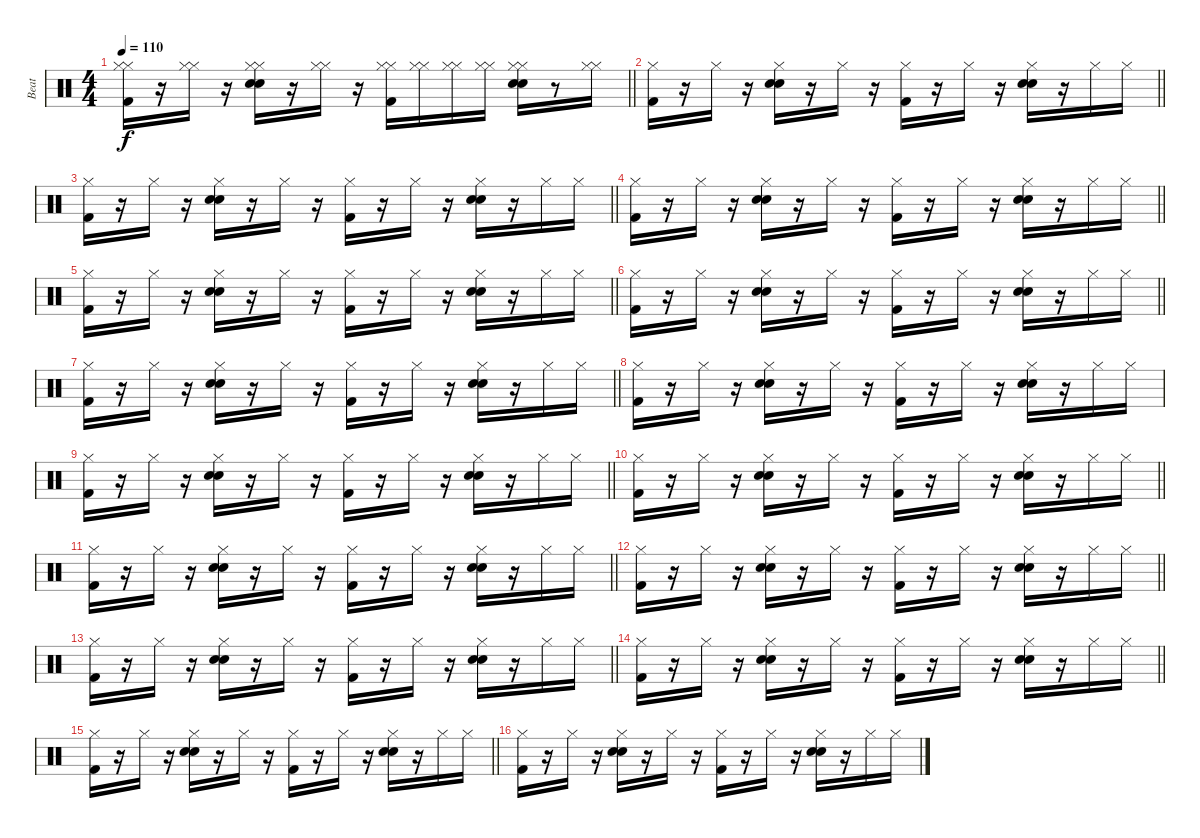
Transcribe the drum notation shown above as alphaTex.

\track ("Beat" "Beat") {instrument percussion}
\staff {score}
\articulation defaults
\ts (4 4)
\tempo 110
\clef neutral
\barLineRight lightlight
\ks c
("Hi-Hat (closed)" "Hi-Hat (closed)" "Kick (hit) 2").16{dy f} r.16 ("Hi-Hat (closed)" "Hi-Hat (closed)").16 r.16 ("Hi-Hat (closed)" "Hi-Hat (closed)" "Electric Snare (hit)" "Hand Clap (hit)").16 r.16 ("Hi-Hat (closed)" "Hi-Hat (closed)").16 r.16 ("Hi-Hat (closed)" "Hi-Hat (closed)" "Kick (hit) 2").16 ("Hi-Hat (closed)" "Hi-Hat (closed)").16 ("Hi-Hat (closed)" "Hi-Hat (closed)").16 ("Hi-Hat (closed)" "Hi-Hat (closed)").16 ("Hi-Hat (closed)" "Hi-Hat (closed)" "Electric Snare (hit)" "Hand Clap (hit)").16 r.8 ("Hi-Hat (closed)" "Hi-Hat (closed)").16 |
\barLineRight lightlight
("Hi-Hat (closed)" "Kick (hit) 2").16 r.16 "Hi-Hat (closed)".16 r.16 ("Hi-Hat (closed)" "Electric Snare (hit)" "Hand Clap (hit)").16 r.16 "Hi-Hat (closed)".16 r.16 ("Hi-Hat (closed)" "Kick (hit) 2").16 r.16 "Hi-Hat (closed)".16 r.16 ("Hi-Hat (closed)" "Electric Snare (hit)" "Hand Clap (hit)").16 r.16 "Hi-Hat (closed)".16 "Hi-Hat (closed)".16 |
\barLineRight lightlight
("Hi-Hat (closed)" "Kick (hit) 2").16 r.16 "Hi-Hat (closed)".16 r.16 ("Hi-Hat (closed)" "Electric Snare (hit)" "Hand Clap (hit)").16 r.16 "Hi-Hat (closed)".16 r.16 ("Hi-Hat (closed)" "Kick (hit) 2").16 r.16 "Hi-Hat (closed)".16 r.16 ("Hi-Hat (closed)" "Electric Snare (hit)" "Hand Clap (hit)").16 r.16 "Hi-Hat (closed)".16 "Hi-Hat (closed)".16 |
\barLineRight lightlight
("Hi-Hat (closed)" "Kick (hit) 2").16 r.16 "Hi-Hat (closed)".16 r.16 ("Hi-Hat (closed)" "Electric Snare (hit)" "Hand Clap (hit)").16 r.16 "Hi-Hat (closed)".16 r.16 ("Hi-Hat (closed)" "Kick (hit) 2").16 r.16 "Hi-Hat (closed)".16 r.16 ("Hi-Hat (closed)" "Electric Snare (hit)" "Hand Clap (hit)").16 r.16 "Hi-Hat (closed)".16 "Hi-Hat (closed)".16 |
\barLineRight lightlight
("Hi-Hat (closed)" "Kick (hit) 2").16 r.16 "Hi-Hat (closed)".16 r.16 ("Hi-Hat (closed)" "Electric Snare (hit)" "Hand Clap (hit)").16 r.16 "Hi-Hat (closed)".16 r.16 ("Hi-Hat (closed)" "Kick (hit) 2").16 r.16 "Hi-Hat (closed)".16 r.16 ("Hi-Hat (closed)" "Electric Snare (hit)" "Hand Clap (hit)").16 r.16 "Hi-Hat (closed)".16 "Hi-Hat (closed)".16 |
\barLineRight lightlight
("Hi-Hat (closed)" "Kick (hit) 2").16 r.16 "Hi-Hat (closed)".16 r.16 ("Hi-Hat (closed)" "Electric Snare (hit)" "Hand Clap (hit)").16 r.16 "Hi-Hat (closed)".16 r.16 ("Hi-Hat (closed)" "Kick (hit) 2").16 r.16 "Hi-Hat (closed)".16 r.16 ("Hi-Hat (closed)" "Electric Snare (hit)" "Hand Clap (hit)").16 r.16 "Hi-Hat (closed)".16 "Hi-Hat (closed)".16 |
\barLineRight lightlight
("Hi-Hat (closed)" "Kick (hit) 2").16 r.16 "Hi-Hat (closed)".16 r.16 ("Hi-Hat (closed)" "Electric Snare (hit)" "Hand Clap (hit)").16 r.16 "Hi-Hat (closed)".16 r.16 ("Hi-Hat (closed)" "Kick (hit) 2").16 r.16 "Hi-Hat (closed)".16 r.16 ("Hi-Hat (closed)" "Electric Snare (hit)" "Hand Clap (hit)").16 r.16 "Hi-Hat (closed)".16 "Hi-Hat (closed)".16 |
("Hi-Hat (closed)" "Kick (hit) 2").16 r.16 "Hi-Hat (closed)".16 r.16 ("Hi-Hat (closed)" "Electric Snare (hit)" "Hand Clap (hit)").16 r.16 "Hi-Hat (closed)".16 r.16 ("Hi-Hat (closed)" "Kick (hit) 2").16 r.16 "Hi-Hat (closed)".16 r.16 ("Hi-Hat (closed)" "Electric Snare (hit)" "Hand Clap (hit)").16 r.16 "Hi-Hat (closed)".16 "Hi-Hat (closed)".16 |
\barLineRight lightlight
("Hi-Hat (closed)" "Kick (hit) 2").16 r.16 "Hi-Hat (closed)".16 r.16 ("Hi-Hat (closed)" "Electric Snare (hit)" "Hand Clap (hit)").16 r.16 "Hi-Hat (closed)".16 r.16 ("Hi-Hat (closed)" "Kick (hit) 2").16 r.16 "Hi-Hat (closed)".16 r.16 ("Hi-Hat (closed)" "Electric Snare (hit)" "Hand Clap (hit)").16 r.16 "Hi-Hat (closed)".16 "Hi-Hat (closed)".16 |
\barLineRight lightlight
("Hi-Hat (closed)" "Kick (hit) 2").16 r.16 "Hi-Hat (closed)".16 r.16 ("Hi-Hat (closed)" "Electric Snare (hit)" "Hand Clap (hit)").16 r.16 "Hi-Hat (closed)".16 r.16 ("Hi-Hat (closed)" "Kick (hit) 2").16 r.16 "Hi-Hat (closed)".16 r.16 ("Hi-Hat (closed)" "Electric Snare (hit)" "Hand Clap (hit)").16 r.16 "Hi-Hat (closed)".16 "Hi-Hat (closed)".16 |
\barLineRight lightlight
("Hi-Hat (closed)" "Kick (hit) 2").16 r.16 "Hi-Hat (closed)".16 r.16 ("Hi-Hat (closed)" "Electric Snare (hit)" "Hand Clap (hit)").16 r.16 "Hi-Hat (closed)".16 r.16 ("Hi-Hat (closed)" "Kick (hit) 2").16 r.16 "Hi-Hat (closed)".16 r.16 ("Hi-Hat (closed)" "Electric Snare (hit)" "Hand Clap (hit)").16 r.16 "Hi-Hat (closed)".16 "Hi-Hat (closed)".16 |
\barLineRight lightlight
("Hi-Hat (closed)" "Kick (hit) 2").16 r.16 "Hi-Hat (closed)".16 r.16 ("Hi-Hat (closed)" "Electric Snare (hit)" "Hand Clap (hit)").16 r.16 "Hi-Hat (closed)".16 r.16 ("Hi-Hat (closed)" "Kick (hit) 2").16 r.16 "Hi-Hat (closed)".16 r.16 ("Hi-Hat (closed)" "Electric Snare (hit)" "Hand Clap (hit)").16 r.16 "Hi-Hat (closed)".16 "Hi-Hat (closed)".16 |
\barLineRight lightlight
("Hi-Hat (closed)" "Kick (hit) 2").16 r.16 "Hi-Hat (closed)".16 r.16 ("Hi-Hat (closed)" "Electric Snare (hit)" "Hand Clap (hit)").16 r.16 "Hi-Hat (closed)".16 r.16 ("Hi-Hat (closed)" "Kick (hit) 2").16 r.16 "Hi-Hat (closed)".16 r.16 ("Hi-Hat (closed)" "Electric Snare (hit)" "Hand Clap (hit)").16 r.16 "Hi-Hat (closed)".16 "Hi-Hat (closed)".16 |
\barLineRight lightlight
("Hi-Hat (closed)" "Kick (hit) 2").16 r.16 "Hi-Hat (closed)".16 r.16 ("Hi-Hat (closed)" "Electric Snare (hit)" "Hand Clap (hit)").16 r.16 "Hi-Hat (closed)".16 r.16 ("Hi-Hat (closed)" "Kick (hit) 2").16 r.16 "Hi-Hat (closed)".16 r.16 ("Hi-Hat (closed)" "Electric Snare (hit)" "Hand Clap (hit)").16 r.16 "Hi-Hat (closed)".16 "Hi-Hat (closed)".16 |
\barLineRight lightlight
("Hi-Hat (closed)" "Kick (hit) 2").16 r.16 "Hi-Hat (closed)".16 r.16 ("Hi-Hat (closed)" "Electric Snare (hit)" "Hand Clap (hit)").16 r.16 "Hi-Hat (closed)".16 r.16 ("Hi-Hat (closed)" "Kick (hit) 2").16 r.16 "Hi-Hat (closed)".16 r.16 ("Hi-Hat (closed)" "Electric Snare (hit)" "Hand Clap (hit)").16 r.16 "Hi-Hat (closed)".16 "Hi-Hat (closed)".16 |
("Hi-Hat (closed)" "Kick (hit) 2").16 r.16 "Hi-Hat (closed)".16 r.16 ("Hi-Hat (closed)" "Electric Snare (hit)" "Hand Clap (hit)").16 r.16 "Hi-Hat (closed)".16 r.16 ("Hi-Hat (closed)" "Kick (hit) 2").16 r.16 "Hi-Hat (closed)".16 r.16 ("Hi-Hat (closed)" "Electric Snare (hit)" "Hand Clap (hit)").16 r.16 "Hi-Hat (closed)".16 "Hi-Hat (closed)".16
